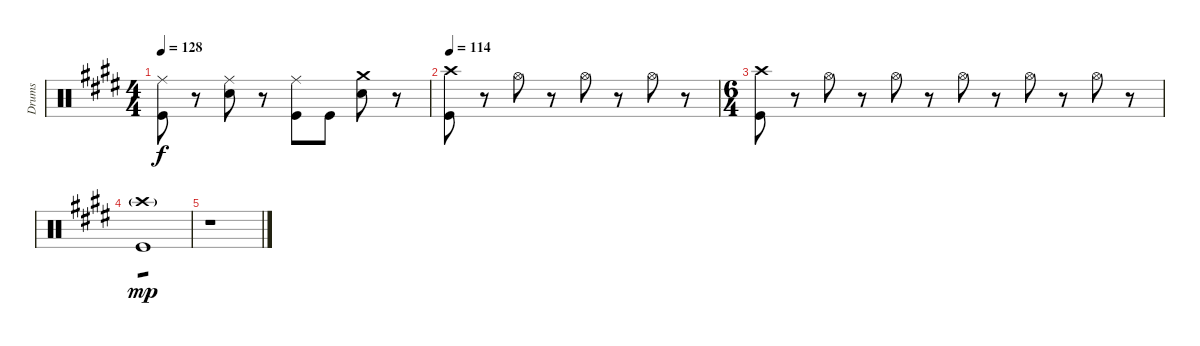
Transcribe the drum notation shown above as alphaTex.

\track ("Drums" "Drums") {instrument percussion}
\staff {score}
\articulation defaults
\ts (4 4)
\tempo 128
\clef neutral
\ks e
("Ride (middle)" "Kick (hit)").8{dy f} r.8 ("Ride (middle)" "Snare (hit) 2").8 r.8 ("Ride (middle)" "Kick (hit)").8 "Kick (hit)".8 ("Crash medium (hit)" "Snare (hit) 2").8 r.8 |
\tempo 114
("Crash high (hit)" "Kick (hit)").8 r.8 "Hi-Hat (open)".8 r.8 "Hi-Hat (open)".8 r.8 "Hi-Hat (open)".8 r.8 |
\ts (6 4)
("Crash high (hit)" "Kick (hit)").8 r.8 "Hi-Hat (open)".8 r.8 "Hi-Hat (open)".8 r.8 "Hi-Hat (open)".8 r.8 "Hi-Hat (open)".8 r.8 "Hi-Hat (open)".8 r.8 |
("Crash high (hit)"{g} "Kick (hit)").1{tp 1 dy mp} |
r.1
